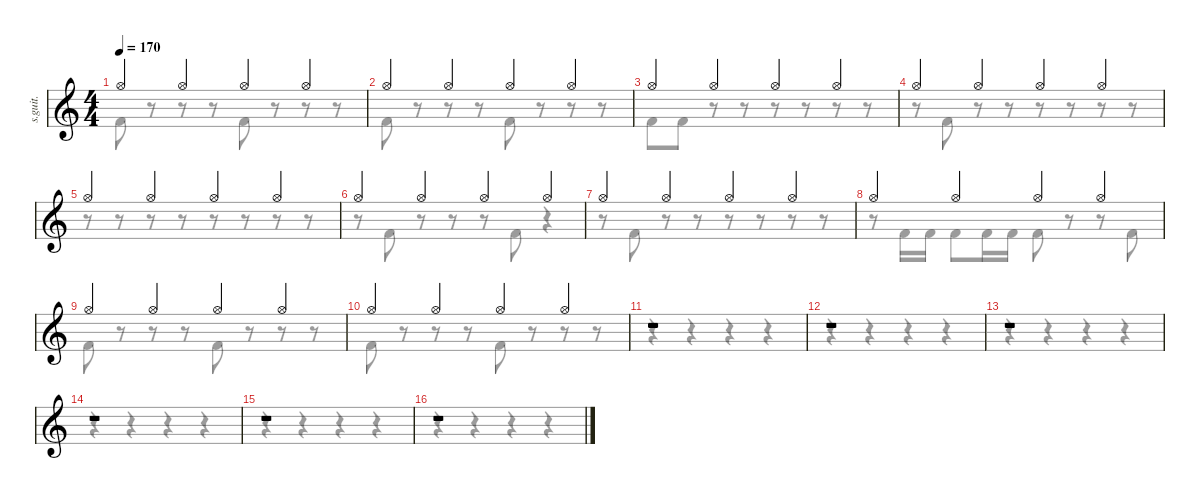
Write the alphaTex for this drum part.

\defaultSystemsLayout 4
\hideDynamics
\bracketExtendMode nobrackets
\track ("Drumkit" "s.guit.") {instrument percussion}
\staff {score}
\articulation defaults
\voice
\ts (4 4)
\tempo 170
\clef g2
\ks c "Hi-Hat (open)".4{dy f} "Hi-Hat (open)".4 "Hi-Hat (open)".4 "Hi-Hat (open)".4
|
"Hi-Hat (open)".4 "Hi-Hat (open)".4 "Hi-Hat (open)".4 "Hi-Hat (open)".4 |
"Hi-Hat (open)".4 "Hi-Hat (open)".4 "Hi-Hat (open)".4 "Hi-Hat (open)".4 |
"Hi-Hat (open)".4 "Hi-Hat (open)".4 "Hi-Hat (open)".4 "Hi-Hat (open)".4 |
"Hi-Hat (open)".4 "Hi-Hat (open)".4 "Hi-Hat (open)".4 "Hi-Hat (open)".4 |
"Hi-Hat (open)".4 "Hi-Hat (open)".4 "Hi-Hat (open)".4 "Hi-Hat (open)".4 |
"Hi-Hat (open)".4 "Hi-Hat (open)".4 "Hi-Hat (open)".4 "Hi-Hat (open)".4 |
"Hi-Hat (open)".4 "Hi-Hat (open)".4 "Hi-Hat (open)".4 "Hi-Hat (open)".4 |
"Hi-Hat (open)".4 "Hi-Hat (open)".4 "Hi-Hat (open)".4 "Hi-Hat (open)".4 |
"Hi-Hat (open)".4 "Hi-Hat (open)".4 "Hi-Hat (open)".4 "Hi-Hat (open)".4 |
r.1 |
r.1 |
r.1 |
r.1 |
r.1 |
r.1
\voice
\clef g2
\ottava regular
\simile none
\ks c "Kick (hit) 2".8{dy f}
r.8 r.8 r.8 "Kick (hit) 2".8 r.8 r.8 r.8 |
"Kick (hit) 2".8 r.8 r.8 r.8 "Kick (hit) 2".8 r.8 r.8 r.8 |
"Kick (hit) 2".8 "Kick (hit) 2".8 r.8 r.8 r.8 r.8 r.8 r.8 |
r.8 "Kick (hit) 2".8 r.8 r.8 r.8 r.8 r.8 r.8 |
r.8 r.8 r.8 r.8 r.8 r.8 r.8 r.8 |
r.8 "Kick (hit) 2".8 r.8 r.8 r.8 "Kick (hit) 2".8 r.4 |
r.8 "Kick (hit) 2".8 r.8 r.8 r.8 r.8 r.8 r.8 |
r.8 "Kick (hit) 2".16 "Kick (hit) 2".16 "Kick (hit) 2".8 "Kick (hit) 2".16 "Kick (hit) 2".16 "Kick (hit) 2".8 r.8 r.8 "Kick (hit) 2".8 |
"Kick (hit) 2".8 r.8 r.8 r.8 "Kick (hit) 2".8 r.8 r.8 r.8 |
"Kick (hit) 2".8 r.8 r.8 r.8 "Kick (hit) 2".8 r.8 r.8 r.8 |
r.4 r.4 r.4 r.4 |
r.4 r.4 r.4 r.4 |
r.4 r.4 r.4 r.4 |
r.4 r.4 r.4 r.4 |
r.4 r.4 r.4 r.4 |
r.4 r.4 r.4 r.4
